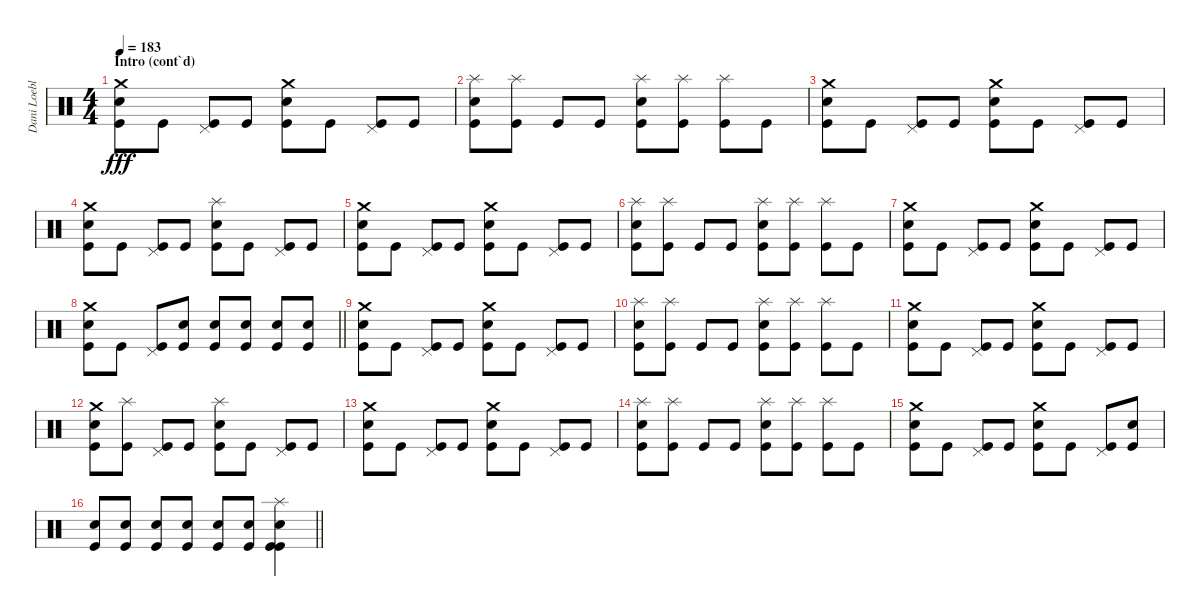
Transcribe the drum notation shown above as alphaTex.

\track ("Dani Loeble" "Dani Loebl") {instrument percussion}
\staff {score}
\articulation defaults
\ts (4 4)
\section ("" "Intro (cont`d)")
\tempo 183
\clef neutral
\ks c
("Crash medium (hit)" "Electric Snare (hit)" "Kick (hit)").8{dy fff} "Kick (hit)".8 ("Pedal Hi-Hat (hit)" "Kick (hit)").8 "Kick (hit)".8 ("Crash medium (hit)" "Electric Snare (hit)" "Kick (hit)").8 "Kick (hit)".8 ("Pedal Hi-Hat (hit)" "Kick (hit)").8 "Kick (hit)".8 |
("Splash (hit)" "Electric Snare (hit)" "Kick (hit)").8 ("Splash (hit)" "Kick (hit)").8 "Kick (hit)".8 "Kick (hit)".8 ("Splash (hit)" "Electric Snare (hit)" "Kick (hit)").8 ("Splash (hit)" "Kick (hit)").8 ("Splash (hit)" "Kick (hit)").8 "Kick (hit)".8 |
("Crash medium (hit)" "Electric Snare (hit)" "Kick (hit)").8 "Kick (hit)".8 ("Pedal Hi-Hat (hit)" "Kick (hit)").8 "Kick (hit)".8 ("Crash medium (hit)" "Electric Snare (hit)" "Kick (hit)").8 "Kick (hit)".8 ("Pedal Hi-Hat (hit)" "Kick (hit)").8 "Kick (hit)".8 |
("Crash medium (hit)" "Electric Snare (hit)" "Kick (hit)").8 "Kick (hit)".8 ("Pedal Hi-Hat (hit)" "Kick (hit)").8 "Kick (hit)".8 ("Splash (hit)" "Electric Snare (hit)" "Kick (hit)").8 "Kick (hit)".8 ("Pedal Hi-Hat (hit)" "Kick (hit)").8 "Kick (hit)".8 |
("Crash medium (hit)" "Electric Snare (hit)" "Kick (hit)").8 "Kick (hit)".8 ("Pedal Hi-Hat (hit)" "Kick (hit)").8 "Kick (hit)".8 ("Crash medium (hit)" "Electric Snare (hit)" "Kick (hit)").8 "Kick (hit)".8 ("Pedal Hi-Hat (hit)" "Kick (hit)").8 "Kick (hit)".8 |
("Splash (hit)" "Electric Snare (hit)" "Kick (hit)").8 ("Splash (hit)" "Kick (hit)").8 "Kick (hit)".8 "Kick (hit)".8 ("Splash (hit)" "Electric Snare (hit)" "Kick (hit)").8 ("Splash (hit)" "Kick (hit)").8 ("Splash (hit)" "Kick (hit)").8 "Kick (hit)".8 |
("Crash medium (hit)" "Electric Snare (hit)" "Kick (hit)").8 "Kick (hit)".8 ("Pedal Hi-Hat (hit)" "Kick (hit)").8 "Kick (hit)".8 ("Crash medium (hit)" "Electric Snare (hit)" "Kick (hit)").8 "Kick (hit)".8 ("Pedal Hi-Hat (hit)" "Kick (hit)").8 "Kick (hit)".8 |
\barLineRight lightlight
("Crash medium (hit)" "Electric Snare (hit)" "Kick (hit)").8 "Kick (hit)".8 ("Pedal Hi-Hat (hit)" "Kick (hit)").8 ("Electric Snare (hit)" "Kick (hit)").8 ("Electric Snare (hit)" "Kick (hit)").8 ("Electric Snare (hit)" "Kick (hit)").8 ("Electric Snare (hit)" "Kick (hit)").8 ("Electric Snare (hit)" "Kick (hit)").8 |
("Crash medium (hit)" "Electric Snare (hit)" "Kick (hit)").8 "Kick (hit)".8 ("Pedal Hi-Hat (hit)" "Kick (hit)").8 "Kick (hit)".8 ("Crash medium (hit)" "Electric Snare (hit)" "Kick (hit)").8 "Kick (hit)".8 ("Pedal Hi-Hat (hit)" "Kick (hit)").8 "Kick (hit)".8 |
("Splash (hit)" "Electric Snare (hit)" "Kick (hit)").8 ("Splash (hit)" "Kick (hit)").8 "Kick (hit)".8 "Kick (hit)".8 ("Splash (hit)" "Electric Snare (hit)" "Kick (hit)").8 ("Splash (hit)" "Kick (hit)").8 ("Splash (hit)" "Kick (hit)").8 "Kick (hit)".8 |
("Crash medium (hit)" "Electric Snare (hit)" "Kick (hit)").8 "Kick (hit)".8 ("Pedal Hi-Hat (hit)" "Kick (hit)").8 "Kick (hit)".8 ("Crash medium (hit)" "Electric Snare (hit)" "Kick (hit)").8 "Kick (hit)".8 ("Pedal Hi-Hat (hit)" "Kick (hit)").8 "Kick (hit)".8 |
("Crash medium (hit)" "Electric Snare (hit)" "Kick (hit)").8 ("Splash (hit)" "Kick (hit)").8 ("Pedal Hi-Hat (hit)" "Kick (hit)").8 "Kick (hit)".8 ("Splash (hit)" "Electric Snare (hit)" "Kick (hit)").8 "Kick (hit)".8 ("Pedal Hi-Hat (hit)" "Kick (hit)").8 "Kick (hit)".8 |
("Crash medium (hit)" "Electric Snare (hit)" "Kick (hit)").8 "Kick (hit)".8 ("Pedal Hi-Hat (hit)" "Kick (hit)").8 "Kick (hit)".8 ("Crash medium (hit)" "Electric Snare (hit)" "Kick (hit)").8 "Kick (hit)".8 ("Pedal Hi-Hat (hit)" "Kick (hit)").8 "Kick (hit)".8 |
("Splash (hit)" "Electric Snare (hit)" "Kick (hit)").8 ("Splash (hit)" "Kick (hit)").8 "Kick (hit)".8 "Kick (hit)".8 ("Splash (hit)" "Electric Snare (hit)" "Kick (hit)").8 ("Splash (hit)" "Kick (hit)").8 ("Splash (hit)" "Kick (hit)").8 "Kick (hit)".8 |
("Crash medium (hit)" "Electric Snare (hit)" "Kick (hit)").8 "Kick (hit)".8 ("Pedal Hi-Hat (hit)" "Kick (hit)").8 "Kick (hit)".8 ("Crash medium (hit)" "Electric Snare (hit)" "Kick (hit)").8 "Kick (hit)".8 ("Pedal Hi-Hat (hit)" "Kick (hit)").8 ("Electric Snare (hit)" "Kick (hit)").8 |
\barLineRight lightlight
("Electric Snare (hit)" "Kick (hit)").8 ("Electric Snare (hit)" "Kick (hit)").8 ("Electric Snare (hit)" "Kick (hit)").8 ("Electric Snare (hit)" "Kick (hit)").8 ("Electric Snare (hit)" "Kick (hit)").8 ("Electric Snare (hit)" "Kick (hit)").8 ("Splash (hit)" "Electric Snare (hit)" "Kick (hit)" "Kick (hit)").4
